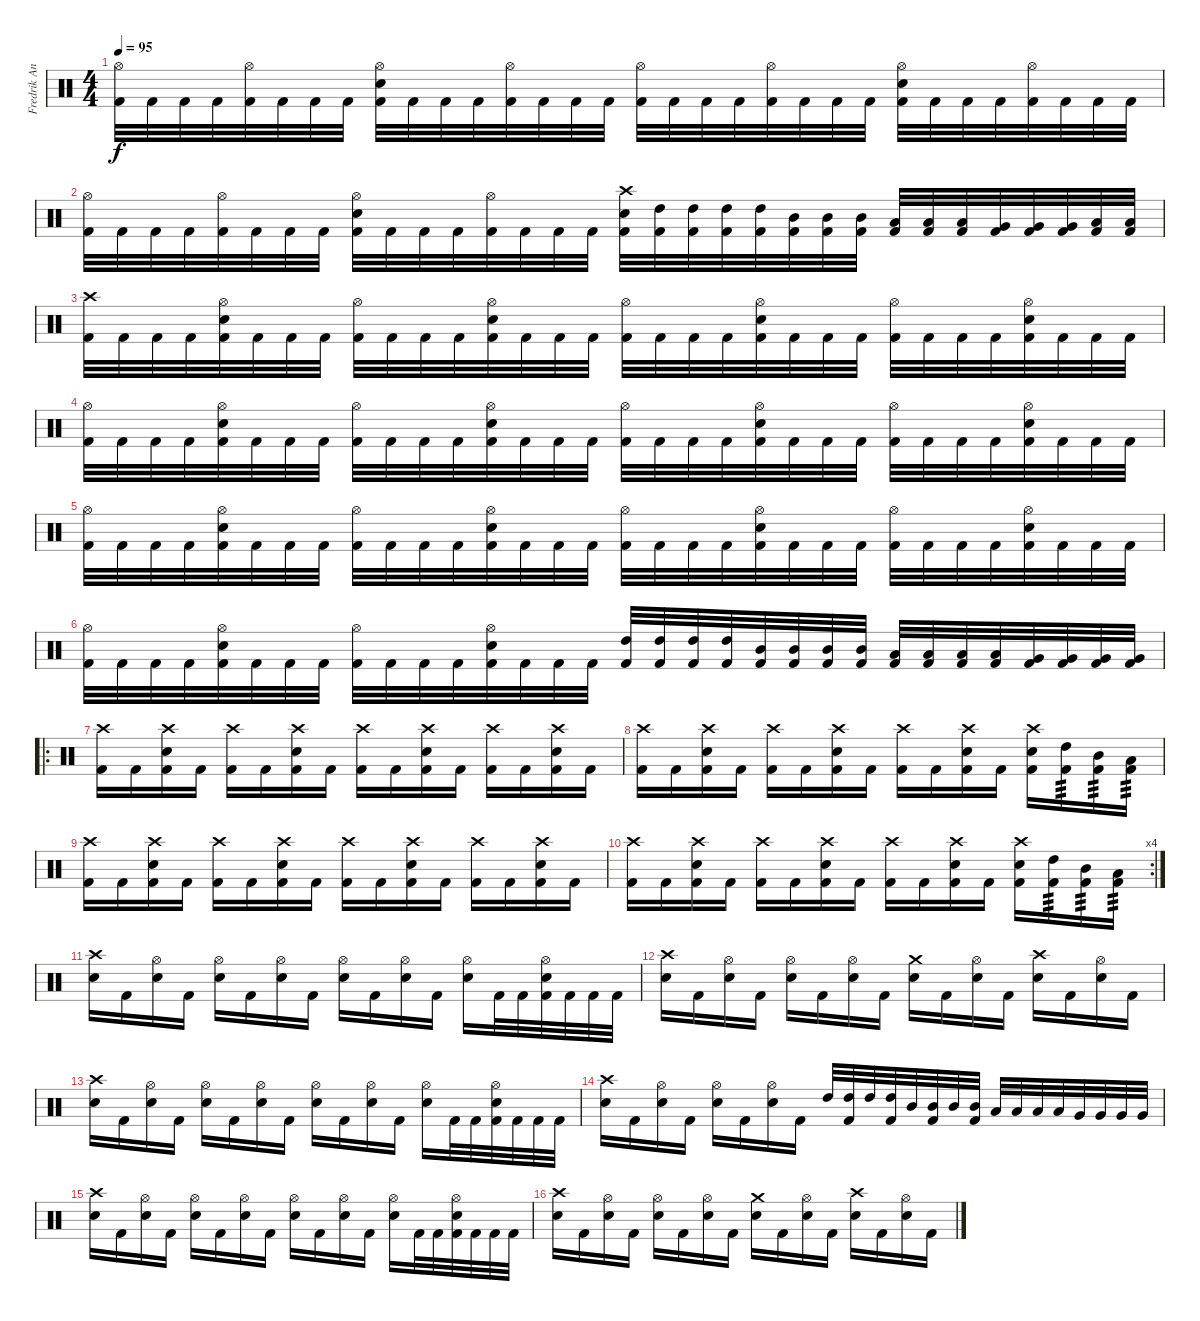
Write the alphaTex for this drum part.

\track ("Fredrik Andersson" "Fredrik An") {instrument percussion}
\staff {score}
\articulation defaults
\ts (4 4)
\tempo 95
\clef neutral
\ks c
("Hi-Hat (open)" "Kick (hit) 2").32{dy f} "Kick (hit) 2".32 "Kick (hit) 2".32 "Kick (hit) 2".32 ("Hi-Hat (open)" "Kick (hit) 2").32 "Kick (hit) 2".32 "Kick (hit) 2".32 "Kick (hit) 2".32 ("Hi-Hat (open)" "Electric Snare (hit)" "Kick (hit) 2").32 "Kick (hit) 2".32 "Kick (hit) 2".32 "Kick (hit) 2".32 ("Hi-Hat (open)" "Kick (hit) 2").32 "Kick (hit) 2".32 "Kick (hit) 2".32 "Kick (hit) 2".32 ("Hi-Hat (open)" "Kick (hit) 2").32 "Kick (hit) 2".32 "Kick (hit) 2".32 "Kick (hit) 2".32 ("Hi-Hat (open)" "Kick (hit) 2").32 "Kick (hit) 2".32 "Kick (hit) 2".32 "Kick (hit) 2".32 ("Hi-Hat (open)" "Electric Snare (hit)" "Kick (hit) 2").32 "Kick (hit) 2".32 "Kick (hit) 2".32 "Kick (hit) 2".32 ("Hi-Hat (open)" "Kick (hit) 2").32 "Kick (hit) 2".32 "Kick (hit) 2".32 "Kick (hit) 2".32 |
("Hi-Hat (open)" "Kick (hit) 2").32 "Kick (hit) 2".32 "Kick (hit) 2".32 "Kick (hit) 2".32 ("Hi-Hat (open)" "Kick (hit) 2").32 "Kick (hit) 2".32 "Kick (hit) 2".32 "Kick (hit) 2".32 ("Hi-Hat (open)" "Electric Snare (hit)" "Kick (hit) 2").32 "Kick (hit) 2".32 "Kick (hit) 2".32 "Kick (hit) 2".32 ("Hi-Hat (open)" "Kick (hit) 2").32 "Kick (hit) 2".32 "Kick (hit) 2".32 "Kick (hit) 2".32 ("Crash high (hit)" "Electric Snare (hit)" "Kick (hit) 2").32 ("High Tom (hit)" "Kick (hit) 2").32 ("High Tom (hit)" "Kick (hit) 2").32 ("High Tom (hit)" "Kick (hit) 2").32 ("High Tom (hit)" "Kick (hit) 2").32 ("Mid Tom (hit)" "Kick (hit) 2").32 ("Mid Tom (hit)" "Kick (hit) 2").32 ("Mid Tom (hit)" "Kick (hit) 2").32 ("Low Tom (hit)" "Kick (hit) 2").32 ("Low Tom (hit)" "Kick (hit) 2").32 ("Low Tom (hit)" "Kick (hit) 2").32 ("Very Low Tom (hit)" "Kick (hit) 2").32 ("Very Low Tom (hit)" "Kick (hit) 2").32 ("Very Low Tom (hit)" "Kick (hit) 2").32 ("Low Floor Tom (hit)" "Kick (hit) 2").32 ("Low Floor Tom (hit)" "Kick (hit) 2").32 |
("Crash high (hit)" "Kick (hit) 2").32 "Kick (hit) 2".32 "Kick (hit) 2".32 "Kick (hit) 2".32 ("Hi-Hat (open)" "Electric Snare (hit)" "Kick (hit) 2").32 "Kick (hit) 2".32 "Kick (hit) 2".32 "Kick (hit) 2".32 ("Hi-Hat (open)" "Kick (hit) 2").32 "Kick (hit) 2".32 "Kick (hit) 2".32 "Kick (hit) 2".32 ("Hi-Hat (open)" "Electric Snare (hit)" "Kick (hit) 2").32 "Kick (hit) 2".32 "Kick (hit) 2".32 "Kick (hit) 2".32 ("Hi-Hat (open)" "Kick (hit) 2").32 "Kick (hit) 2".32 "Kick (hit) 2".32 "Kick (hit) 2".32 ("Hi-Hat (open)" "Electric Snare (hit)" "Kick (hit) 2").32 "Kick (hit) 2".32 "Kick (hit) 2".32 "Kick (hit) 2".32 ("Hi-Hat (open)" "Kick (hit) 2").32 "Kick (hit) 2".32 "Kick (hit) 2".32 "Kick (hit) 2".32 ("Hi-Hat (open)" "Electric Snare (hit)" "Kick (hit) 2").32 "Kick (hit) 2".32 "Kick (hit) 2".32 "Kick (hit) 2".32 |
("Hi-Hat (open)" "Kick (hit) 2").32 "Kick (hit) 2".32 "Kick (hit) 2".32 "Kick (hit) 2".32 ("Hi-Hat (open)" "Electric Snare (hit)" "Kick (hit) 2").32 "Kick (hit) 2".32 "Kick (hit) 2".32 "Kick (hit) 2".32 ("Hi-Hat (open)" "Kick (hit) 2").32 "Kick (hit) 2".32 "Kick (hit) 2".32 "Kick (hit) 2".32 ("Hi-Hat (open)" "Electric Snare (hit)" "Kick (hit) 2").32 "Kick (hit) 2".32 "Kick (hit) 2".32 "Kick (hit) 2".32 ("Hi-Hat (open)" "Kick (hit) 2").32 "Kick (hit) 2".32 "Kick (hit) 2".32 "Kick (hit) 2".32 ("Hi-Hat (open)" "Electric Snare (hit)" "Kick (hit) 2").32 "Kick (hit) 2".32 "Kick (hit) 2".32 "Kick (hit) 2".32 ("Hi-Hat (open)" "Kick (hit) 2").32 "Kick (hit) 2".32 "Kick (hit) 2".32 "Kick (hit) 2".32 ("Hi-Hat (open)" "Electric Snare (hit)" "Kick (hit) 2").32 "Kick (hit) 2".32 "Kick (hit) 2".32 "Kick (hit) 2".32 |
("Hi-Hat (open)" "Kick (hit) 2").32 "Kick (hit) 2".32 "Kick (hit) 2".32 "Kick (hit) 2".32 ("Hi-Hat (open)" "Electric Snare (hit)" "Kick (hit) 2").32 "Kick (hit) 2".32 "Kick (hit) 2".32 "Kick (hit) 2".32 ("Hi-Hat (open)" "Kick (hit) 2").32 "Kick (hit) 2".32 "Kick (hit) 2".32 "Kick (hit) 2".32 ("Hi-Hat (open)" "Electric Snare (hit)" "Kick (hit) 2").32 "Kick (hit) 2".32 "Kick (hit) 2".32 "Kick (hit) 2".32 ("Hi-Hat (open)" "Kick (hit) 2").32 "Kick (hit) 2".32 "Kick (hit) 2".32 "Kick (hit) 2".32 ("Hi-Hat (open)" "Electric Snare (hit)" "Kick (hit) 2").32 "Kick (hit) 2".32 "Kick (hit) 2".32 "Kick (hit) 2".32 ("Hi-Hat (open)" "Kick (hit) 2").32 "Kick (hit) 2".32 "Kick (hit) 2".32 "Kick (hit) 2".32 ("Hi-Hat (open)" "Electric Snare (hit)" "Kick (hit) 2").32 "Kick (hit) 2".32 "Kick (hit) 2".32 "Kick (hit) 2".32 |
("Hi-Hat (open)" "Kick (hit) 2").32 "Kick (hit) 2".32 "Kick (hit) 2".32 "Kick (hit) 2".32 ("Hi-Hat (open)" "Electric Snare (hit)" "Kick (hit) 2").32 "Kick (hit) 2".32 "Kick (hit) 2".32 "Kick (hit) 2".32 ("Hi-Hat (open)" "Kick (hit) 2").32 "Kick (hit) 2".32 "Kick (hit) 2".32 "Kick (hit) 2".32 ("Hi-Hat (open)" "Electric Snare (hit)" "Kick (hit) 2").32 "Kick (hit) 2".32 "Kick (hit) 2".32 "Kick (hit) 2".32 ("High Tom (hit)" "Kick (hit) 2").32 ("High Tom (hit)" "Kick (hit) 2").32 ("High Tom (hit)" "Kick (hit) 2").32 ("High Tom (hit)" "Kick (hit) 2").32 ("Mid Tom (hit)" "Kick (hit) 2").32 ("Mid Tom (hit)" "Kick (hit) 2").32 ("Mid Tom (hit)" "Kick (hit) 2").32 ("Mid Tom (hit)" "Kick (hit) 2").32 ("Low Tom (hit)" "Kick (hit) 2").32 ("Low Tom (hit)" "Kick (hit) 2").32 ("Low Tom (hit)" "Kick (hit) 2").32 ("Low Tom (hit)" "Kick (hit) 2").32 ("Very Low Tom (hit)" "Kick (hit) 2").32 ("Very Low Tom (hit)" "Kick (hit) 2").32 ("Very Low Tom (hit)" "Kick (hit) 2").32 ("Very Low Tom (hit)" "Kick (hit) 2").32 |
\ro
("Crash high (hit)" "Kick (hit) 2").16 "Kick (hit) 2".16 ("Crash high (hit)" "Electric Snare (hit)" "Kick (hit) 2").16 "Kick (hit) 2".16 ("Crash high (hit)" "Kick (hit) 2").16 "Kick (hit) 2".16 ("Crash high (hit)" "Electric Snare (hit)" "Kick (hit) 2").16 "Kick (hit) 2".16 ("Crash high (hit)" "Kick (hit) 2").16 "Kick (hit) 2".16 ("Crash high (hit)" "Electric Snare (hit)" "Kick (hit) 2").16 "Kick (hit) 2".16 ("Crash high (hit)" "Kick (hit) 2").16 "Kick (hit) 2".16 ("Crash high (hit)" "Electric Snare (hit)" "Kick (hit) 2").16 "Kick (hit) 2".16 |
("Crash high (hit)" "Kick (hit) 2").16 "Kick (hit) 2".16 ("Crash high (hit)" "Electric Snare (hit)" "Kick (hit) 2").16 "Kick (hit) 2".16 ("Crash high (hit)" "Kick (hit) 2").16 "Kick (hit) 2".16 ("Crash high (hit)" "Electric Snare (hit)" "Kick (hit) 2").16 "Kick (hit) 2".16 ("Crash high (hit)" "Kick (hit) 2").16 "Kick (hit) 2".16 ("Crash high (hit)" "Electric Snare (hit)" "Kick (hit) 2").16 "Kick (hit) 2".16 ("Crash high (hit)" "Electric Snare (hit)" "Kick (hit) 2").16 ("High Tom (hit)" "Kick (hit) 2").16{tp 3} ("Mid Tom (hit)" "Kick (hit) 2").16{tp 3} ("Low Tom (hit)" "Kick (hit) 2").16{tp 3} |
("Crash high (hit)" "Kick (hit) 2").16 "Kick (hit) 2".16 ("Crash high (hit)" "Electric Snare (hit)" "Kick (hit) 2").16 "Kick (hit) 2".16 ("Crash high (hit)" "Kick (hit) 2").16 "Kick (hit) 2".16 ("Crash high (hit)" "Electric Snare (hit)" "Kick (hit) 2").16 "Kick (hit) 2".16 ("Crash high (hit)" "Kick (hit) 2").16 "Kick (hit) 2".16 ("Crash high (hit)" "Electric Snare (hit)" "Kick (hit) 2").16 "Kick (hit) 2".16 ("Crash high (hit)" "Kick (hit) 2").16 "Kick (hit) 2".16 ("Crash high (hit)" "Electric Snare (hit)" "Kick (hit) 2").16 "Kick (hit) 2".16 |
\rc 4
("Crash high (hit)" "Kick (hit) 2").16 "Kick (hit) 2".16 ("Crash high (hit)" "Electric Snare (hit)" "Kick (hit) 2").16 "Kick (hit) 2".16 ("Crash high (hit)" "Kick (hit) 2").16 "Kick (hit) 2".16 ("Crash high (hit)" "Electric Snare (hit)" "Kick (hit) 2").16 "Kick (hit) 2".16 ("Crash high (hit)" "Kick (hit) 2").16 "Kick (hit) 2".16 ("Crash high (hit)" "Electric Snare (hit)" "Kick (hit) 2").16 "Kick (hit) 2".16 ("Crash high (hit)" "Electric Snare (hit)" "Kick (hit) 2").16 ("High Tom (hit)" "Kick (hit) 2").16{tp 3} ("Mid Tom (hit)" "Kick (hit) 2").16{tp 3} ("Low Tom (hit)" "Kick (hit) 2").16{tp 3} |
("Crash high (hit)" "Electric Snare (hit)").16 "Kick (hit) 2".16 ("Hi-Hat (open)" "Electric Snare (hit)").16 "Kick (hit) 2".16 ("Hi-Hat (open)" "Electric Snare (hit)").16 "Kick (hit) 2".16 ("Hi-Hat (open)" "Electric Snare (hit)").16 "Kick (hit) 2".16 ("Hi-Hat (open)" "Electric Snare (hit)").16 "Kick (hit) 2".16 ("Hi-Hat (open)" "Electric Snare (hit)").16 "Kick (hit) 2".16 ("Hi-Hat (open)" "Electric Snare (hit)").16 "Kick (hit) 2".32 "Kick (hit) 2".32 ("Hi-Hat (open)" "Electric Snare (hit)" "Kick (hit) 2").32 "Kick (hit) 2".32 "Kick (hit) 2".32 "Kick (hit) 2".32 |
("Crash high (hit)" "Electric Snare (hit)").16 "Kick (hit) 2".16 ("Hi-Hat (open)" "Electric Snare (hit)").16 "Kick (hit) 2".16 ("Hi-Hat (open)" "Electric Snare (hit)").16 "Kick (hit) 2".16 ("Hi-Hat (open)" "Electric Snare (hit)").16 "Kick (hit) 2".16 ("Crash medium (hit)" "Electric Snare (hit)").16 "Kick (hit) 2".16 ("Hi-Hat (open)" "Electric Snare (hit)").16 "Kick (hit) 2".16 ("Crash high (hit)" "Electric Snare (hit)").16 "Kick (hit) 2".16 ("Hi-Hat (open)" "Electric Snare (hit)").16 "Kick (hit) 2".16 |
("Crash high (hit)" "Electric Snare (hit)").16 "Kick (hit) 2".16 ("Hi-Hat (open)" "Electric Snare (hit)").16 "Kick (hit) 2".16 ("Hi-Hat (open)" "Electric Snare (hit)").16 "Kick (hit) 2".16 ("Hi-Hat (open)" "Electric Snare (hit)").16 "Kick (hit) 2".16 ("Hi-Hat (open)" "Electric Snare (hit)").16 "Kick (hit) 2".16 ("Hi-Hat (open)" "Electric Snare (hit)").16 "Kick (hit) 2".16 ("Hi-Hat (open)" "Electric Snare (hit)").16 "Kick (hit) 2".32 "Kick (hit) 2".32 ("Hi-Hat (open)" "Electric Snare (hit)" "Kick (hit) 2").32 "Kick (hit) 2".32 "Kick (hit) 2".32 "Kick (hit) 2".32 |
("Crash high (hit)" "Electric Snare (hit)").16 "Kick (hit) 2".16 ("Hi-Hat (open)" "Electric Snare (hit)").16 "Kick (hit) 2".16 ("Hi-Hat (open)" "Electric Snare (hit)").16 "Kick (hit) 2".16 ("Hi-Hat (open)" "Electric Snare (hit)").16 "Kick (hit) 2".16 "High Tom (hit)".32 ("High Tom (hit)" "Kick (hit) 2").32 "High Tom (hit)".32 ("High Tom (hit)" "Kick (hit) 2").32 "Mid Tom (hit)".32 ("Mid Tom (hit)" "Kick (hit) 2").32 "Mid Tom (hit)".32 ("Mid Tom (hit)" "Kick (hit) 2").32 "Low Tom (hit)".32 "Low Tom (hit)".32 "Low Tom (hit)".32 "Low Tom (hit)".32 "Very Low Tom (hit)".32 "Very Low Tom (hit)".32 "Very Low Tom (hit)".32 "Very Low Tom (hit)".32 |
("Crash high (hit)" "Electric Snare (hit)").16 "Kick (hit) 2".16 ("Hi-Hat (open)" "Electric Snare (hit)").16 "Kick (hit) 2".16 ("Hi-Hat (open)" "Electric Snare (hit)").16 "Kick (hit) 2".16 ("Hi-Hat (open)" "Electric Snare (hit)").16 "Kick (hit) 2".16 ("Hi-Hat (open)" "Electric Snare (hit)").16 "Kick (hit) 2".16 ("Hi-Hat (open)" "Electric Snare (hit)").16 "Kick (hit) 2".16 ("Hi-Hat (open)" "Electric Snare (hit)").16 "Kick (hit) 2".32 "Kick (hit) 2".32 ("Hi-Hat (open)" "Electric Snare (hit)" "Kick (hit) 2").32 "Kick (hit) 2".32 "Kick (hit) 2".32 "Kick (hit) 2".32 |
("Crash high (hit)" "Electric Snare (hit)").16 "Kick (hit) 2".16 ("Hi-Hat (open)" "Electric Snare (hit)").16 "Kick (hit) 2".16 ("Hi-Hat (open)" "Electric Snare (hit)").16 "Kick (hit) 2".16 ("Hi-Hat (open)" "Electric Snare (hit)").16 "Kick (hit) 2".16 ("Crash medium (hit)" "Electric Snare (hit)").16 "Kick (hit) 2".16 ("Hi-Hat (open)" "Electric Snare (hit)").16 "Kick (hit) 2".16 ("Crash high (hit)" "Electric Snare (hit)").16 "Kick (hit) 2".16 ("Hi-Hat (open)" "Electric Snare (hit)").16 "Kick (hit) 2".16
